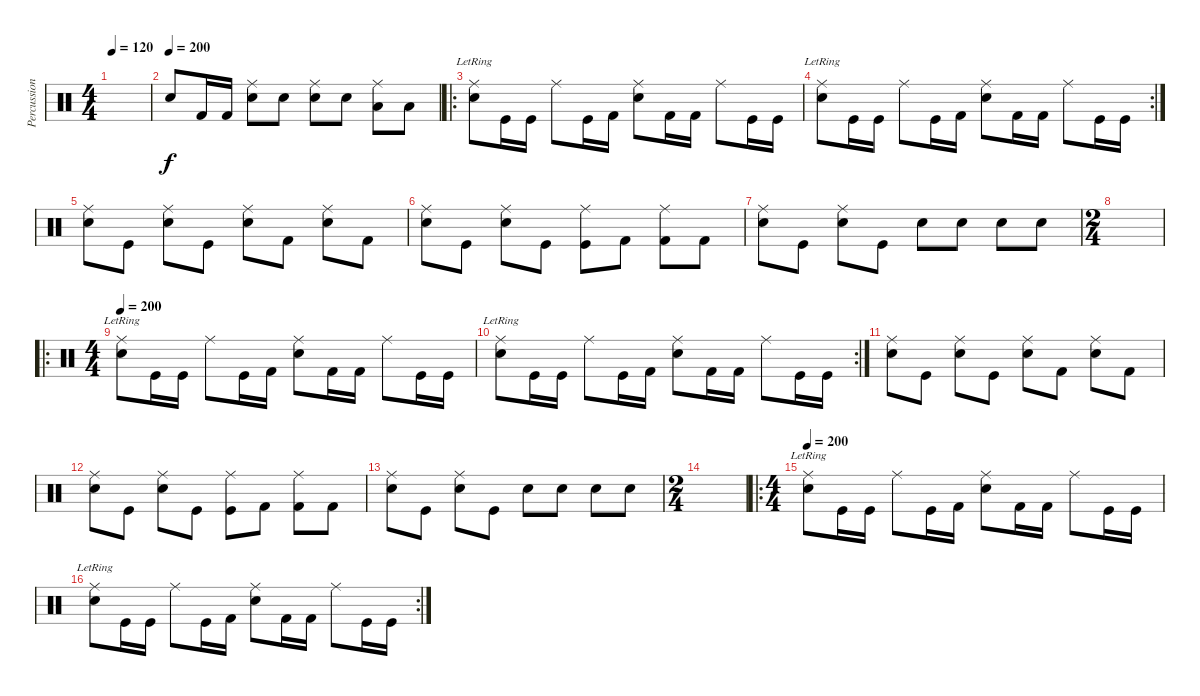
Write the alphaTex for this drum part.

\track ("Percussion" "Percussion") {instrument percussion}
\staff {score}
\articulation defaults
\ts (4 4)
\tempo 120
\clef neutral
\ks c
|
\tempo (200)
"Electric Snare (hit)".8 "Kick (hit) 2".16 "Kick (hit) 2".16 ("Ride (middle)" "Electric Snare (hit)").8 "Electric Snare (hit)".8 ("Ride (middle)" "Electric Snare (hit)").8 "Electric Snare (hit)".8 ("Ride (middle)" "Low Tom (hit)").8 "Low Tom (hit)".8 |
\ro
("Ride (middle)"{lr} "Electric Snare (hit)").8 "Kick (hit)".16 "Kick (hit)".16 "Ride (middle)".8 "Kick (hit)".16 "Kick (hit) 2".16 ("Ride (middle)" "Electric Snare (hit)").8 "Kick (hit) 2".16 "Kick (hit) 2".16 "Ride (middle)".8 "Kick (hit)".16 "Kick (hit)".16 |
\rc 2
("Ride (middle)"{lr} "Electric Snare (hit)").8 "Kick (hit)".16 "Kick (hit)".16 "Ride (middle)".8 "Kick (hit)".16 "Kick (hit) 2".16 ("Ride (middle)" "Electric Snare (hit)").8 "Kick (hit) 2".16 "Kick (hit) 2".16 "Ride (middle)".8 "Kick (hit)".16 "Kick (hit)".16 |
("Ride (middle)" "Electric Snare (hit)").8 "Kick (hit)".8 ("Ride (middle)" "Electric Snare (hit)").8 "Kick (hit)".8 ("Ride (middle)" "Electric Snare (hit)").8 "Kick (hit) 2".8 ("Ride (middle)" "Electric Snare (hit)").8 "Kick (hit) 2".8 |
("Ride (middle)" "Electric Snare (hit)").8 "Kick (hit)".8 ("Ride (middle)" "Electric Snare (hit)").8 "Kick (hit)".8 ("Ride (middle)" "Kick (hit)").8 "Kick (hit) 2".8 ("Ride (middle)" "Kick (hit) 2").8 "Kick (hit) 2".8 |
("Ride (middle)" "Electric Snare (hit)").8 "Kick (hit)".8 ("Ride (middle)" "Electric Snare (hit)").8 "Kick (hit)".8 "Electric Snare (hit)".8 "Electric Snare (hit)".8 "Electric Snare (hit)".8 "Electric Snare (hit)".8 |
\ts (2 4)
|
\ro
\ts (4 4)
\tempo 200
("Ride (middle)"{lr} "Electric Snare (hit)").8 "Kick (hit)".16 "Kick (hit)".16 "Ride (middle)".8 "Kick (hit)".16 "Kick (hit) 2".16 ("Ride (middle)" "Electric Snare (hit)").8 "Kick (hit) 2".16 "Kick (hit) 2".16 "Ride (middle)".8 "Kick (hit)".16 "Kick (hit)".16 |
\rc 2
("Ride (middle)"{lr} "Electric Snare (hit)").8 "Kick (hit)".16 "Kick (hit)".16 "Ride (middle)".8 "Kick (hit)".16 "Kick (hit) 2".16 ("Ride (middle)" "Electric Snare (hit)").8 "Kick (hit) 2".16 "Kick (hit) 2".16 "Ride (middle)".8 "Kick (hit)".16 "Kick (hit)".16 |
("Ride (middle)" "Electric Snare (hit)").8 "Kick (hit)".8 ("Ride (middle)" "Electric Snare (hit)").8 "Kick (hit)".8 ("Ride (middle)" "Electric Snare (hit)").8 "Kick (hit) 2".8 ("Ride (middle)" "Electric Snare (hit)").8 "Kick (hit) 2".8 |
("Ride (middle)" "Electric Snare (hit)").8 "Kick (hit)".8 ("Ride (middle)" "Electric Snare (hit)").8 "Kick (hit)".8 ("Ride (middle)" "Kick (hit)").8 "Kick (hit) 2".8 ("Ride (middle)" "Kick (hit) 2").8 "Kick (hit) 2".8 |
("Ride (middle)" "Electric Snare (hit)").8 "Kick (hit)".8 ("Ride (middle)" "Electric Snare (hit)").8 "Kick (hit)".8 "Electric Snare (hit)".8 "Electric Snare (hit)".8 "Electric Snare (hit)".8 "Electric Snare (hit)".8 |
\ts (2 4)
|
\ro
\ts (4 4)
\tempo 200
("Ride (middle)"{lr} "Electric Snare (hit)").8 "Kick (hit)".16 "Kick (hit)".16 "Ride (middle)".8 "Kick (hit)".16 "Kick (hit) 2".16 ("Ride (middle)" "Electric Snare (hit)").8 "Kick (hit) 2".16 "Kick (hit) 2".16 "Ride (middle)".8 "Kick (hit)".16 "Kick (hit)".16 |
\rc 2
("Ride (middle)"{lr} "Electric Snare (hit)").8 "Kick (hit)".16 "Kick (hit)".16 "Ride (middle)".8 "Kick (hit)".16 "Kick (hit) 2".16 ("Ride (middle)" "Electric Snare (hit)").8 "Kick (hit) 2".16 "Kick (hit) 2".16 "Ride (middle)".8 "Kick (hit)".16 "Kick (hit)".16
